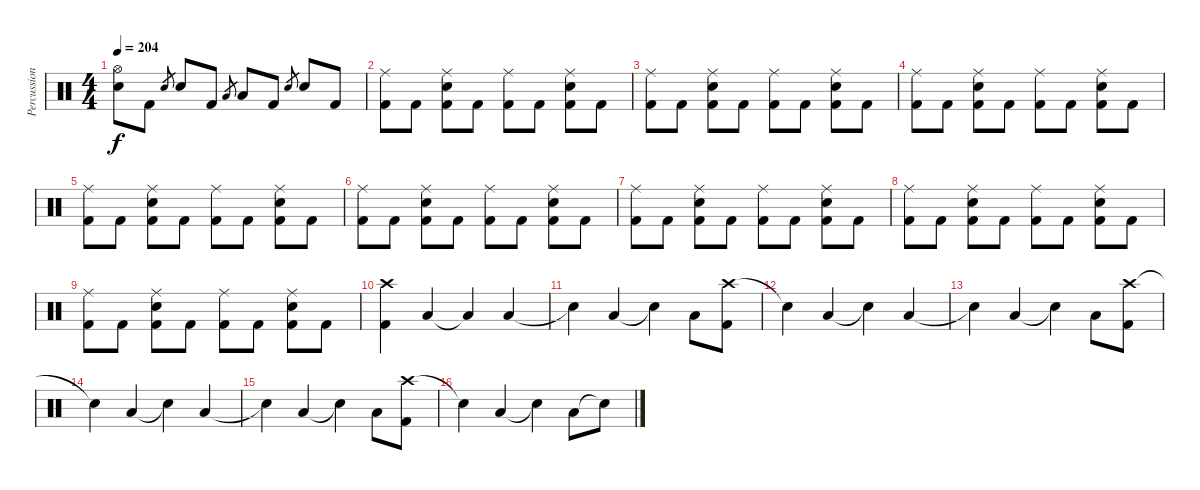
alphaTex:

\track ("Percussion" "Percussion") {instrument percussion}
\staff {score}
\articulation defaults
\ts (4 4)
\tempo 204
\clef neutral
\ks c
("Hi-Hat (open)" "Snare (hit)"{t}).8{dy f} "Kick (hit) 2".8 "Snare (hit) 2".8{gr} "Electric Snare (hit)".8 "Kick (hit) 2".8 "Low Tom (hit)".8{gr} "Low Tom (hit)".8 "Kick (hit) 2".8 "Snare (hit) 2".8{gr} "Electric Snare (hit)".8 "Kick (hit) 2".8 |
("Ride (middle)" "Kick (hit) 2").8 "Kick (hit) 2".8 ("Ride (middle)" "Electric Snare (hit)" "Kick (hit) 2").8 "Kick (hit) 2".8 ("Ride (middle)" "Kick (hit) 2").8 "Kick (hit) 2".8 ("Ride (middle)" "Electric Snare (hit)" "Kick (hit) 2").8 "Kick (hit) 2".8 |
("Ride (middle)" "Kick (hit) 2").8 "Kick (hit) 2".8 ("Ride (middle)" "Electric Snare (hit)" "Kick (hit) 2").8 "Kick (hit) 2".8 ("Ride (middle)" "Kick (hit) 2").8 "Kick (hit) 2".8 ("Ride (middle)" "Electric Snare (hit)" "Kick (hit) 2").8 "Kick (hit) 2".8 |
("Ride (middle)" "Kick (hit) 2").8 "Kick (hit) 2".8 ("Ride (middle)" "Electric Snare (hit)" "Kick (hit) 2").8 "Kick (hit) 2".8 ("Ride (middle)" "Kick (hit) 2").8 "Kick (hit) 2".8 ("Ride (middle)" "Electric Snare (hit)" "Kick (hit) 2").8 "Kick (hit) 2".8 |
("Ride (middle)" "Kick (hit) 2").8 "Kick (hit) 2".8 ("Ride (middle)" "Electric Snare (hit)" "Kick (hit) 2").8 "Kick (hit) 2".8 ("Ride (middle)" "Kick (hit) 2").8 "Kick (hit) 2".8 ("Ride (middle)" "Electric Snare (hit)" "Kick (hit) 2").8 "Kick (hit) 2".8 |
("Ride (middle)" "Kick (hit) 2").8 "Kick (hit) 2".8 ("Ride (middle)" "Electric Snare (hit)" "Kick (hit) 2").8 "Kick (hit) 2".8 ("Ride (middle)" "Kick (hit) 2").8 "Kick (hit) 2".8 ("Ride (middle)" "Electric Snare (hit)" "Kick (hit) 2").8 "Kick (hit) 2".8 |
("Ride (middle)" "Kick (hit) 2").8 "Kick (hit) 2".8 ("Ride (middle)" "Electric Snare (hit)" "Kick (hit) 2").8 "Kick (hit) 2".8 ("Ride (middle)" "Kick (hit) 2").8 "Kick (hit) 2".8 ("Ride (middle)" "Electric Snare (hit)" "Kick (hit) 2").8 "Kick (hit) 2".8 |
("Ride (middle)" "Kick (hit) 2").8 "Kick (hit) 2".8 ("Ride (middle)" "Electric Snare (hit)" "Kick (hit) 2").8 "Kick (hit) 2".8 ("Ride (middle)" "Kick (hit) 2").8 "Kick (hit) 2".8 ("Ride (middle)" "Electric Snare (hit)" "Kick (hit) 2").8 "Kick (hit) 2".8 |
("Ride (middle)" "Kick (hit) 2").8 "Kick (hit) 2".8 ("Ride (middle)" "Electric Snare (hit)" "Kick (hit) 2").8 "Kick (hit) 2".8 ("Ride (middle)" "Kick (hit) 2").8 "Kick (hit) 2".8 ("Ride (middle)" "Electric Snare (hit)" "Kick (hit) 2").8 "Kick (hit) 2".8 |
("Crash high (hit)" "Kick (hit) 2").4 "Low Tom (hit)".4 "Low Tom (hit)"{t}.4 "Low Tom (hit)".4 |
"Snare (hit)"{t}.4 "Low Tom (hit)".4 "Snare (hit)"{t}.4 "Low Tom (hit)".8 ("Crash high (hit)" "Kick (hit) 2").8 |
"Snare (hit)"{t}.4 "Low Tom (hit)".4 "Snare (hit)"{t}.4 "Low Tom (hit)".4 |
"Snare (hit)"{t}.4 "Low Tom (hit)".4 "Snare (hit)"{t}.4 "Low Tom (hit)".8 ("Crash high (hit)" "Kick (hit) 2").8 |
"Snare (hit)"{t}.4 "Low Tom (hit)".4 "Snare (hit)"{t}.4 "Low Tom (hit)".4 |
"Snare (hit)"{t}.4 "Low Tom (hit)".4 "Snare (hit)"{t}.4 "Low Tom (hit)".8 ("Crash high (hit)" "Kick (hit) 2").8 |
"Snare (hit)"{t}.4 "Low Tom (hit)".4 "Snare (hit)"{t}.4 "Low Tom (hit)".8 "Snare (hit)"{t}.8
